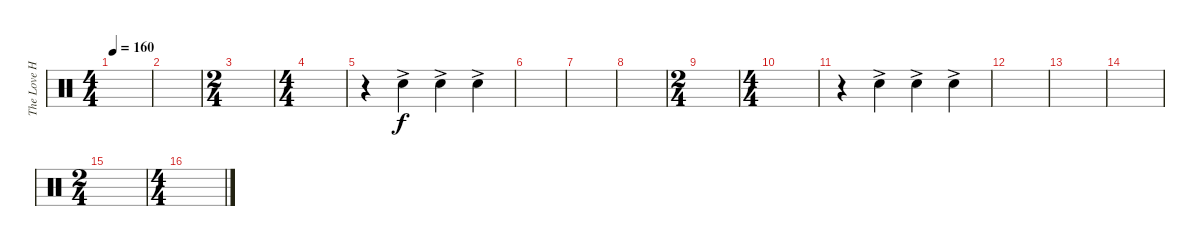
\track ("The Love Haters (Hand Clap)(Drums)" "The Love H") {instrument percussion}
\staff {score}
\articulation defaults
\ts (4 4)
\tempo 160
\clef neutral
\ks c
|
|
\ts (2 4)
|
\ts (4 4)
|
r.4 "Hand Clap (hit)"{ac}.4 "Hand Clap (hit)"{ac}.4 "Hand Clap (hit)"{ac}.4 |
|
|
|
\ts (2 4)
|
\ts (4 4)
|
r.4 "Hand Clap (hit)"{ac}.4 "Hand Clap (hit)"{ac}.4 "Hand Clap (hit)"{ac}.4 |
|
|
|
\ts (2 4)
|
\ts (4 4)
